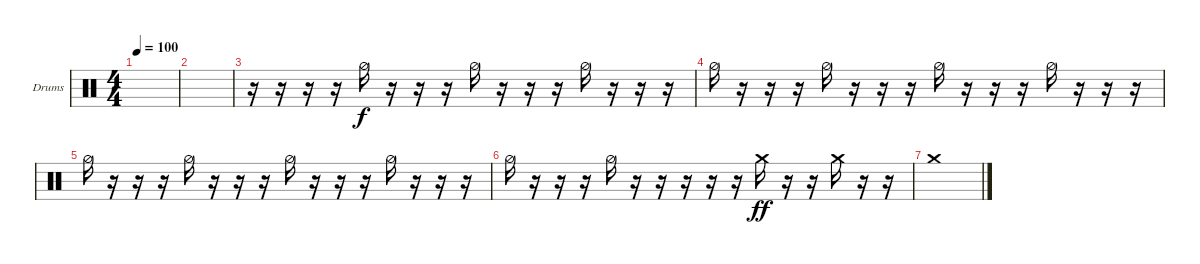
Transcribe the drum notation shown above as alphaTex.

\defaultSystemsLayout 4
\bracketExtendMode groupsimilarinstruments
\firstSystemTrackNameOrientation horizontal
\otherSystemsTrackNameOrientation horizontal
\track ("Drumkit" "Drums") {instrument percussion}
\staff {score}
\articulation defaults
\ts (4 4)
\tempo 100
\clef neutral
\ks c
|
|
r.16 r.16 r.16 r.16 "Hi-Hat (half)".16 r.16 r.16 r.16 "Hi-Hat (half)".16 r.16 r.16 r.16 "Hi-Hat (half)".16 r.16 r.16 r.16 |
"Hi-Hat (half)".16 r.16 r.16 r.16 "Hi-Hat (half)".16 r.16 r.16 r.16 "Hi-Hat (half)".16 r.16 r.16 r.16 "Hi-Hat (half)".16 r.16 r.16 r.16 |
"Hi-Hat (half)".16 r.16 r.16 r.16 "Hi-Hat (half)".16 r.16 r.16 r.16 "Hi-Hat (half)".16 r.16 r.16 r.16 "Hi-Hat (half)".16 r.16 r.16 r.16 |
"Hi-Hat (half)".16 r.16 r.16 r.16 "Hi-Hat (half)".16 r.16 r.16 r.16 r.16 r.16 "Crash medium (hit)".16{dy ff} r.16 r.16 "Crash medium (hit)".16 r.16 r.16 |
"Crash medium (hit)".1
